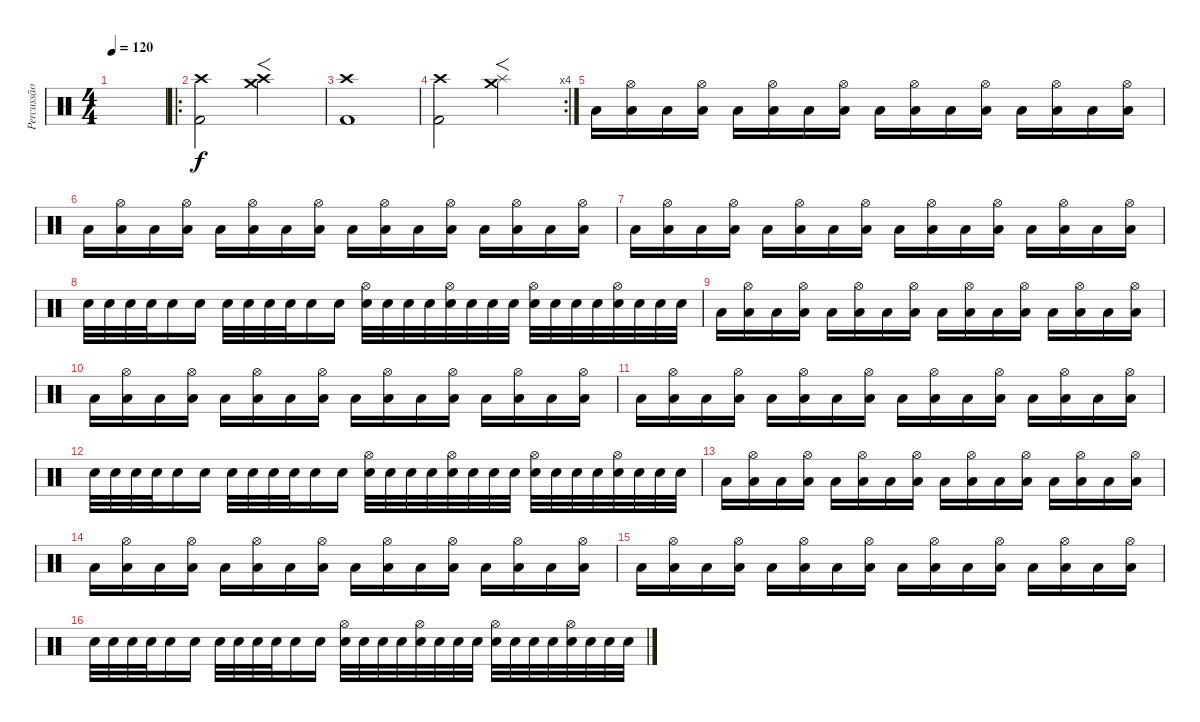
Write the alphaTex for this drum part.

\track ("Percussão" "Percussão") {instrument percussion}
\staff {score}
\articulation defaults
\ts (4 4)
\tempo 120
\clef neutral
\ks c
|
\ro
("Crash high (hit)" "Kick (hit) 2").2 ("Crash high (hit)" "Crash medium (hit)").2{f} |
("Crash high (hit)" "Kick (hit) 2").1 |
\rc 4
("Crash high (hit)" "Kick (hit) 2").2 ("Splash (hit)" "Crash medium (hit)").2{f} |
"Low Tom (hit)".16 ("Low Tom (hit)" "Hi-Hat (open)").16 "Low Tom (hit)".16 ("Low Tom (hit)" "Hi-Hat (open)").16 "Low Tom (hit)".16 ("Low Tom (hit)" "Hi-Hat (open)").16 "Low Tom (hit)".16 ("Low Tom (hit)" "Hi-Hat (open)").16 "Low Tom (hit)".16 ("Low Tom (hit)" "Hi-Hat (open)").16 "Low Tom (hit)".16 ("Low Tom (hit)" "Hi-Hat (open)").16 "Low Tom (hit)".16 ("Low Tom (hit)" "Hi-Hat (open)").16 "Low Tom (hit)".16 ("Low Tom (hit)" "Hi-Hat (open)").16 |
"Low Tom (hit)".16 ("Low Tom (hit)" "Hi-Hat (open)").16 "Low Tom (hit)".16 ("Low Tom (hit)" "Hi-Hat (open)").16 "Low Tom (hit)".16 ("Low Tom (hit)" "Hi-Hat (open)").16 "Low Tom (hit)".16 ("Low Tom (hit)" "Hi-Hat (open)").16 "Low Tom (hit)".16 ("Low Tom (hit)" "Hi-Hat (open)").16 "Low Tom (hit)".16 ("Low Tom (hit)" "Hi-Hat (open)").16 "Low Tom (hit)".16 ("Low Tom (hit)" "Hi-Hat (open)").16 "Low Tom (hit)".16 ("Low Tom (hit)" "Hi-Hat (open)").16 |
"Low Tom (hit)".16 ("Low Tom (hit)" "Hi-Hat (open)").16 "Low Tom (hit)".16 ("Low Tom (hit)" "Hi-Hat (open)").16 "Low Tom (hit)".16 ("Low Tom (hit)" "Hi-Hat (open)").16 "Low Tom (hit)".16 ("Low Tom (hit)" "Hi-Hat (open)").16 "Low Tom (hit)".16 ("Low Tom (hit)" "Hi-Hat (open)").16 "Low Tom (hit)".16 ("Low Tom (hit)" "Hi-Hat (open)").16 "Low Tom (hit)".16 ("Low Tom (hit)" "Hi-Hat (open)").16 "Low Tom (hit)".16 ("Low Tom (hit)" "Hi-Hat (open)").16 |
"Electric Snare (hit)".32 "Electric Snare (hit)".32 "Electric Snare (hit)".32 "Electric Snare (hit)".32 "Snare (hit) 2".16 "Snare (hit) 2".16 "Electric Snare (hit)".32 "Electric Snare (hit)".32 "Electric Snare (hit)".32 "Electric Snare (hit)".32 "Snare (hit) 2".16 "Snare (hit) 2".16 ("Electric Snare (hit)" "Hi-Hat (open)").32 "Electric Snare (hit)".32 "Electric Snare (hit)".32 "Electric Snare (hit)".32 ("Electric Snare (hit)" "Hi-Hat (open)").32 "Electric Snare (hit)".32 "Electric Snare (hit)".32 "Electric Snare (hit)".32 ("Snare (hit) 2" "Hi-Hat (open)").32 "Snare (hit) 2".32 "Snare (hit) 2".32 "Snare (hit) 2".32 ("Snare (hit) 2" "Hi-Hat (open)").32 "Snare (hit) 2".32 "Snare (hit) 2".32 "Snare (hit) 2".32 |
"Low Tom (hit)".16 ("Low Tom (hit)" "Hi-Hat (open)").16 "Low Tom (hit)".16 ("Low Tom (hit)" "Hi-Hat (open)").16 "Low Tom (hit)".16 ("Low Tom (hit)" "Hi-Hat (open)").16 "Low Tom (hit)".16 ("Low Tom (hit)" "Hi-Hat (open)").16 "Low Tom (hit)".16 ("Low Tom (hit)" "Hi-Hat (open)").16 "Low Tom (hit)".16 ("Low Tom (hit)" "Hi-Hat (open)").16 "Low Tom (hit)".16 ("Low Tom (hit)" "Hi-Hat (open)").16 "Low Tom (hit)".16 ("Low Tom (hit)" "Hi-Hat (open)").16 |
"Low Tom (hit)".16 ("Low Tom (hit)" "Hi-Hat (open)").16 "Low Tom (hit)".16 ("Low Tom (hit)" "Hi-Hat (open)").16 "Low Tom (hit)".16 ("Low Tom (hit)" "Hi-Hat (open)").16 "Low Tom (hit)".16 ("Low Tom (hit)" "Hi-Hat (open)").16 "Low Tom (hit)".16 ("Low Tom (hit)" "Hi-Hat (open)").16 "Low Tom (hit)".16 ("Low Tom (hit)" "Hi-Hat (open)").16 "Low Tom (hit)".16 ("Low Tom (hit)" "Hi-Hat (open)").16 "Low Tom (hit)".16 ("Low Tom (hit)" "Hi-Hat (open)").16 |
"Low Tom (hit)".16 ("Low Tom (hit)" "Hi-Hat (open)").16 "Low Tom (hit)".16 ("Low Tom (hit)" "Hi-Hat (open)").16 "Low Tom (hit)".16 ("Low Tom (hit)" "Hi-Hat (open)").16 "Low Tom (hit)".16 ("Low Tom (hit)" "Hi-Hat (open)").16 "Low Tom (hit)".16 ("Low Tom (hit)" "Hi-Hat (open)").16 "Low Tom (hit)".16 ("Low Tom (hit)" "Hi-Hat (open)").16 "Low Tom (hit)".16 ("Low Tom (hit)" "Hi-Hat (open)").16 "Low Tom (hit)".16 ("Low Tom (hit)" "Hi-Hat (open)").16 |
"Electric Snare (hit)".32 "Electric Snare (hit)".32 "Electric Snare (hit)".32 "Electric Snare (hit)".32 "Snare (hit) 2".16 "Snare (hit) 2".16 "Electric Snare (hit)".32 "Electric Snare (hit)".32 "Electric Snare (hit)".32 "Electric Snare (hit)".32 "Snare (hit) 2".16 "Snare (hit) 2".16 ("Electric Snare (hit)" "Hi-Hat (open)").32 "Electric Snare (hit)".32 "Electric Snare (hit)".32 "Electric Snare (hit)".32 ("Electric Snare (hit)" "Hi-Hat (open)").32 "Electric Snare (hit)".32 "Electric Snare (hit)".32 "Electric Snare (hit)".32 ("Snare (hit) 2" "Hi-Hat (open)").32 "Snare (hit) 2".32 "Snare (hit) 2".32 "Snare (hit) 2".32 ("Snare (hit) 2" "Hi-Hat (open)").32 "Snare (hit) 2".32 "Snare (hit) 2".32 "Snare (hit) 2".32 |
"Low Tom (hit)".16 ("Low Tom (hit)" "Hi-Hat (open)").16 "Low Tom (hit)".16 ("Low Tom (hit)" "Hi-Hat (open)").16 "Low Tom (hit)".16 ("Low Tom (hit)" "Hi-Hat (open)").16 "Low Tom (hit)".16 ("Low Tom (hit)" "Hi-Hat (open)").16 "Low Tom (hit)".16 ("Low Tom (hit)" "Hi-Hat (open)").16 "Low Tom (hit)".16 ("Low Tom (hit)" "Hi-Hat (open)").16 "Low Tom (hit)".16 ("Low Tom (hit)" "Hi-Hat (open)").16 "Low Tom (hit)".16 ("Low Tom (hit)" "Hi-Hat (open)").16 |
"Low Tom (hit)".16 ("Low Tom (hit)" "Hi-Hat (open)").16 "Low Tom (hit)".16 ("Low Tom (hit)" "Hi-Hat (open)").16 "Low Tom (hit)".16 ("Low Tom (hit)" "Hi-Hat (open)").16 "Low Tom (hit)".16 ("Low Tom (hit)" "Hi-Hat (open)").16 "Low Tom (hit)".16 ("Low Tom (hit)" "Hi-Hat (open)").16 "Low Tom (hit)".16 ("Low Tom (hit)" "Hi-Hat (open)").16 "Low Tom (hit)".16 ("Low Tom (hit)" "Hi-Hat (open)").16 "Low Tom (hit)".16 ("Low Tom (hit)" "Hi-Hat (open)").16 |
"Low Tom (hit)".16 ("Low Tom (hit)" "Hi-Hat (open)").16 "Low Tom (hit)".16 ("Low Tom (hit)" "Hi-Hat (open)").16 "Low Tom (hit)".16 ("Low Tom (hit)" "Hi-Hat (open)").16 "Low Tom (hit)".16 ("Low Tom (hit)" "Hi-Hat (open)").16 "Low Tom (hit)".16 ("Low Tom (hit)" "Hi-Hat (open)").16 "Low Tom (hit)".16 ("Low Tom (hit)" "Hi-Hat (open)").16 "Low Tom (hit)".16 ("Low Tom (hit)" "Hi-Hat (open)").16 "Low Tom (hit)".16 ("Low Tom (hit)" "Hi-Hat (open)").16 |
"Electric Snare (hit)".32 "Electric Snare (hit)".32 "Electric Snare (hit)".32 "Electric Snare (hit)".32 "Snare (hit) 2".16 "Snare (hit) 2".16 "Electric Snare (hit)".32 "Electric Snare (hit)".32 "Electric Snare (hit)".32 "Electric Snare (hit)".32 "Snare (hit) 2".16 "Snare (hit) 2".16 ("Electric Snare (hit)" "Hi-Hat (open)").32 "Electric Snare (hit)".32 "Electric Snare (hit)".32 "Electric Snare (hit)".32 ("Electric Snare (hit)" "Hi-Hat (open)").32 "Electric Snare (hit)".32 "Electric Snare (hit)".32 "Electric Snare (hit)".32 ("Snare (hit) 2" "Hi-Hat (open)").32 "Snare (hit) 2".32 "Snare (hit) 2".32 "Snare (hit) 2".32 ("Snare (hit) 2" "Hi-Hat (open)").32 "Snare (hit) 2".32 "Snare (hit) 2".32 "Snare (hit) 2".32
